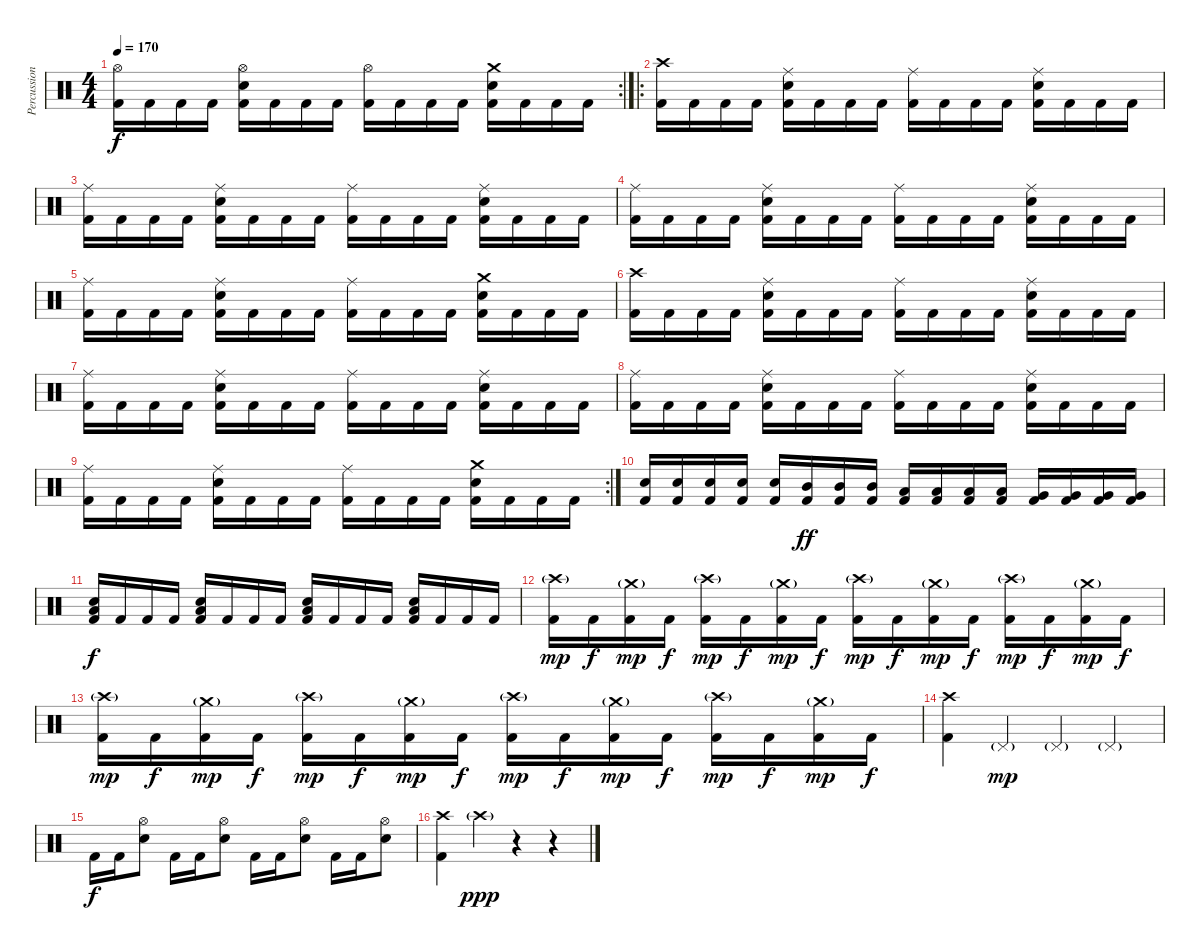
\track ("Percussion" "Percussion") {instrument percussion}
\staff {score}
\articulation defaults
\rc 2
\ts (4 4)
\tempo 170
\clef neutral
\ks c
("Hi-Hat (open)" "Kick (hit) 2").16{dy f} "Kick (hit) 2".16 "Kick (hit) 2".16 "Kick (hit) 2".16 ("Hi-Hat (open)" "Electric Snare (hit)" "Kick (hit) 2").16 "Kick (hit) 2".16 "Kick (hit) 2".16 "Kick (hit) 2".16 ("Hi-Hat (open)" "Kick (hit) 2").16 "Kick (hit) 2".16 "Kick (hit) 2".16 "Kick (hit) 2".16 ("Crash medium (hit)" "Electric Snare (hit)" "Kick (hit) 2").16 "Kick (hit) 2".16 "Kick (hit) 2".16 "Kick (hit) 2".16 |
\ro
("Crash high (hit)" "Kick (hit) 2").16 "Kick (hit) 2".16 "Kick (hit) 2".16 "Kick (hit) 2".16 ("Ride (middle)" "Electric Snare (hit)" "Kick (hit) 2").16 "Kick (hit) 2".16 "Kick (hit) 2".16 "Kick (hit) 2".16 ("Ride (middle)" "Kick (hit) 2").16 "Kick (hit) 2".16 "Kick (hit) 2".16 "Kick (hit) 2".16 ("Ride (middle)" "Electric Snare (hit)" "Kick (hit) 2").16 "Kick (hit) 2".16 "Kick (hit) 2".16 "Kick (hit) 2".16 |
("Ride (middle)" "Kick (hit) 2").16 "Kick (hit) 2".16 "Kick (hit) 2".16 "Kick (hit) 2".16 ("Ride (middle)" "Electric Snare (hit)" "Kick (hit) 2").16 "Kick (hit) 2".16 "Kick (hit) 2".16 "Kick (hit) 2".16 ("Ride (middle)" "Kick (hit) 2").16 "Kick (hit) 2".16 "Kick (hit) 2".16 "Kick (hit) 2".16 ("Ride (middle)" "Electric Snare (hit)" "Kick (hit) 2").16 "Kick (hit) 2".16 "Kick (hit) 2".16 "Kick (hit) 2".16 |
("Ride (middle)" "Kick (hit) 2").16 "Kick (hit) 2".16 "Kick (hit) 2".16 "Kick (hit) 2".16 ("Ride (middle)" "Electric Snare (hit)" "Kick (hit) 2").16 "Kick (hit) 2".16 "Kick (hit) 2".16 "Kick (hit) 2".16 ("Ride (middle)" "Kick (hit) 2").16 "Kick (hit) 2".16 "Kick (hit) 2".16 "Kick (hit) 2".16 ("Ride (middle)" "Electric Snare (hit)" "Kick (hit) 2").16 "Kick (hit) 2".16 "Kick (hit) 2".16 "Kick (hit) 2".16 |
("Ride (middle)" "Kick (hit) 2").16 "Kick (hit) 2".16 "Kick (hit) 2".16 "Kick (hit) 2".16 ("Ride (middle)" "Electric Snare (hit)" "Kick (hit) 2").16 "Kick (hit) 2".16 "Kick (hit) 2".16 "Kick (hit) 2".16 ("Ride (middle)" "Kick (hit) 2").16 "Kick (hit) 2".16 "Kick (hit) 2".16 "Kick (hit) 2".16 ("Crash medium (hit)" "Electric Snare (hit)" "Kick (hit) 2").16 "Kick (hit) 2".16 "Kick (hit) 2".16 "Kick (hit) 2".16 |
("Crash high (hit)" "Kick (hit) 2").16 "Kick (hit) 2".16 "Kick (hit) 2".16 "Kick (hit) 2".16 ("Ride (middle)" "Electric Snare (hit)" "Kick (hit) 2").16 "Kick (hit) 2".16 "Kick (hit) 2".16 "Kick (hit) 2".16 ("Ride (middle)" "Kick (hit) 2").16 "Kick (hit) 2".16 "Kick (hit) 2".16 "Kick (hit) 2".16 ("Ride (middle)" "Electric Snare (hit)" "Kick (hit) 2").16 "Kick (hit) 2".16 "Kick (hit) 2".16 "Kick (hit) 2".16 |
("Ride (middle)" "Kick (hit) 2").16 "Kick (hit) 2".16 "Kick (hit) 2".16 "Kick (hit) 2".16 ("Ride (middle)" "Electric Snare (hit)" "Kick (hit) 2").16 "Kick (hit) 2".16 "Kick (hit) 2".16 "Kick (hit) 2".16 ("Ride (middle)" "Kick (hit) 2").16 "Kick (hit) 2".16 "Kick (hit) 2".16 "Kick (hit) 2".16 ("Ride (middle)" "Electric Snare (hit)" "Kick (hit) 2").16 "Kick (hit) 2".16 "Kick (hit) 2".16 "Kick (hit) 2".16 |
("Ride (middle)" "Kick (hit) 2").16 "Kick (hit) 2".16 "Kick (hit) 2".16 "Kick (hit) 2".16 ("Ride (middle)" "Electric Snare (hit)" "Kick (hit) 2").16 "Kick (hit) 2".16 "Kick (hit) 2".16 "Kick (hit) 2".16 ("Ride (middle)" "Kick (hit) 2").16 "Kick (hit) 2".16 "Kick (hit) 2".16 "Kick (hit) 2".16 ("Ride (middle)" "Electric Snare (hit)" "Kick (hit) 2").16 "Kick (hit) 2".16 "Kick (hit) 2".16 "Kick (hit) 2".16 |
\rc 2
("Ride (middle)" "Kick (hit) 2").16 "Kick (hit) 2".16 "Kick (hit) 2".16 "Kick (hit) 2".16 ("Ride (middle)" "Electric Snare (hit)" "Kick (hit) 2").16 "Kick (hit) 2".16 "Kick (hit) 2".16 "Kick (hit) 2".16 ("Ride (middle)" "Kick (hit) 2").16 "Kick (hit) 2".16 "Kick (hit) 2".16 "Kick (hit) 2".16 ("Crash medium (hit)" "Electric Snare (hit)" "Kick (hit) 2").16 "Kick (hit) 2".16 "Kick (hit) 2".16 "Kick (hit) 2".16 |
("Electric Snare (hit)" "Kick (hit) 2").16 ("Electric Snare (hit)" "Kick (hit) 2").16 ("Electric Snare (hit)" "Kick (hit) 2").16 ("Electric Snare (hit)" "Kick (hit) 2").16 ("Electric Snare (hit)" "Kick (hit) 2").16 ("Mid Tom (hit)" "Kick (hit) 2").16{dy ff} ("Mid Tom (hit)" "Kick (hit) 2").16 ("Mid Tom (hit)" "Kick (hit) 2").16 ("Low Tom (hit)" "Kick (hit) 2").16 ("Low Tom (hit)" "Kick (hit) 2").16 ("Low Tom (hit)" "Kick (hit) 2").16 ("Low Tom (hit)" "Kick (hit) 2").16 ("Very Low Tom (hit)" "Kick (hit) 2").16 ("Very Low Tom (hit)" "Kick (hit) 2").16 ("Very Low Tom (hit)" "Kick (hit) 2").16 ("Very Low Tom (hit)" "Kick (hit) 2").16 |
("Low Tom (hit)" "Electric Snare (hit)" "Kick (hit) 2").16{dy f} "Kick (hit) 2".16 "Kick (hit) 2".16 "Kick (hit) 2".16 ("Low Tom (hit)" "Electric Snare (hit)" "Kick (hit) 2").16 "Kick (hit) 2".16 "Kick (hit) 2".16 "Kick (hit) 2".16 ("Low Tom (hit)" "Electric Snare (hit)" "Kick (hit) 2").16 "Kick (hit) 2".16 "Kick (hit) 2".16 "Kick (hit) 2".16 ("Low Tom (hit)" "Electric Snare (hit)" "Kick (hit) 2").16 "Kick (hit) 2".16 "Kick (hit) 2".16 "Kick (hit) 2".16 |
("Crash high (hit)"{g} "Kick (hit) 2").16{dy mp} "Kick (hit) 2".16{dy f} ("Crash medium (hit)"{g} "Kick (hit) 2").16{dy mp} "Kick (hit) 2".16{dy f} ("Crash high (hit)"{g} "Kick (hit) 2").16{dy mp} "Kick (hit) 2".16{dy f} ("Crash medium (hit)"{g} "Kick (hit) 2").16{dy mp} "Kick (hit) 2".16{dy f} ("Crash high (hit)"{g} "Kick (hit) 2").16{dy mp} "Kick (hit) 2".16{dy f} ("Crash medium (hit)"{g} "Kick (hit) 2").16{dy mp} "Kick (hit) 2".16{dy f} ("Crash high (hit)"{g} "Kick (hit) 2").16{dy mp} "Kick (hit) 2".16{dy f} ("Crash medium (hit)"{g} "Kick (hit) 2").16{dy mp} "Kick (hit) 2".16{dy f} |
("Crash high (hit)"{g} "Kick (hit) 2").16{dy mp} "Kick (hit) 2".16{dy f} ("Crash medium (hit)"{g} "Kick (hit) 2").16{dy mp} "Kick (hit) 2".16{dy f} ("Crash high (hit)"{g} "Kick (hit) 2").16{dy mp} "Kick (hit) 2".16{dy f} ("Crash medium (hit)"{g} "Kick (hit) 2").16{dy mp} "Kick (hit) 2".16{dy f} ("Crash high (hit)"{g} "Kick (hit) 2").16{dy mp} "Kick (hit) 2".16{dy f} ("Crash medium (hit)"{g} "Kick (hit) 2").16{dy mp} "Kick (hit) 2".16{dy f} ("Crash high (hit)"{g} "Kick (hit) 2").16{dy mp} "Kick (hit) 2".16{dy f} ("Crash medium (hit)"{g} "Kick (hit) 2").16{dy mp} "Kick (hit) 2".16{dy f} |
("Crash high (hit)" "Kick (hit) 2").4 "Pedal Hi-Hat (hit)"{g}.4{dy mp} "Pedal Hi-Hat (hit)"{g}.4 "Pedal Hi-Hat (hit)"{g}.4 |
"Kick (hit) 2".16{dy f} "Kick (hit) 2".16 ("Hi-Hat (open)" "Electric Snare (hit)").8 "Kick (hit) 2".16 "Kick (hit) 2".16 ("Hi-Hat (open)" "Electric Snare (hit)").8 "Kick (hit) 2".16 "Kick (hit) 2".16 ("Hi-Hat (open)" "Electric Snare (hit)").8 "Kick (hit) 2".16 "Kick (hit) 2".16 ("Hi-Hat (open)" "Electric Snare (hit)").8 |
("Crash high (hit)" "Kick (hit) 2").4 "Crash high (hit)"{g}.4{dy ppp volume 0} r.4 r.4
